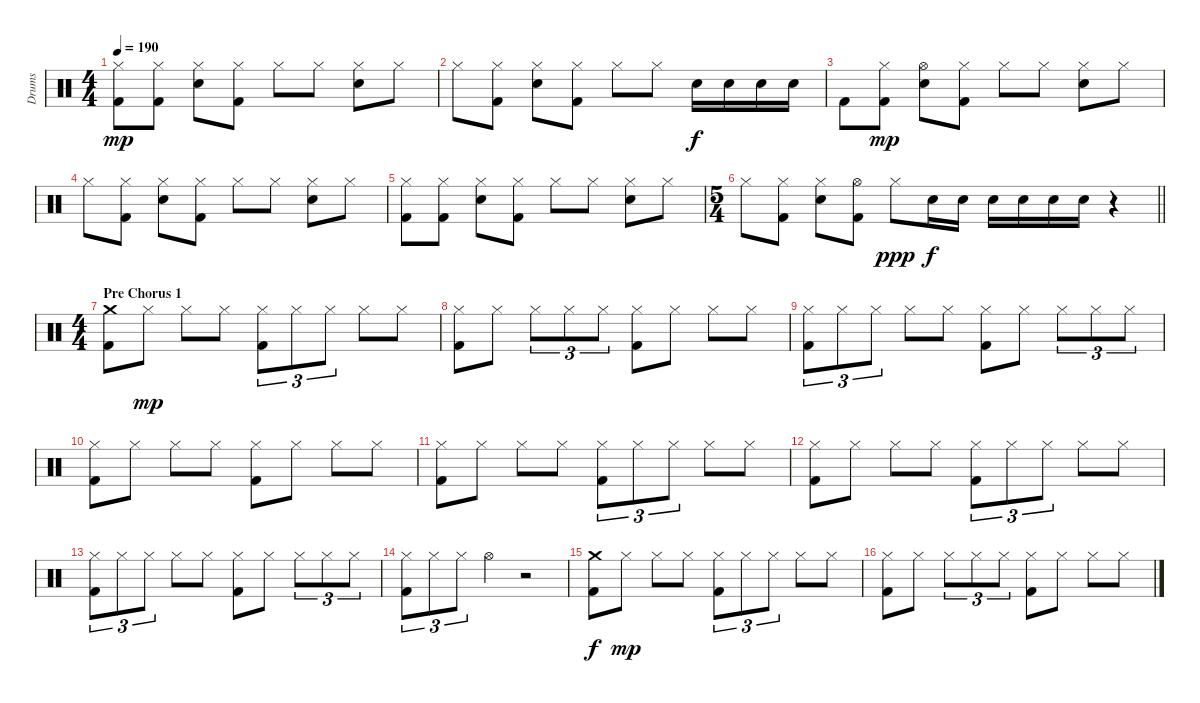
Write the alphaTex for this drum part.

\track ("Drums" "Drums") {instrument percussion}
\staff {score}
\articulation defaults
\ts (4 4)
\tempo 190
\clef neutral
\ks c
("Hi-Hat (closed)" "Kick (hit) 2").8{dy mp} ("Hi-Hat (closed)" "Kick (hit) 2").8 ("Hi-Hat (closed)" "Snare (hit) 2").8 ("Hi-Hat (closed)" "Kick (hit) 2").8 "Hi-Hat (closed)".8 "Hi-Hat (closed)".8 ("Hi-Hat (closed)" "Snare (hit) 2").8 "Hi-Hat (closed)".8 |
"Hi-Hat (closed)".8 ("Hi-Hat (closed)" "Kick (hit) 2").8 ("Hi-Hat (closed)" "Snare (hit) 2").8 ("Hi-Hat (closed)" "Kick (hit) 2").8 "Hi-Hat (closed)".8 "Hi-Hat (closed)".8 "Snare (hit) 2".16{dy f} "Snare (hit) 2".16 "Snare (hit) 2".16 "Snare (hit) 2".16 |
"Kick (hit) 2".8 ("Hi-Hat (closed)" "Kick (hit) 2").8{dy mp} ("Hi-Hat (open)" "Snare (hit) 2").8 ("Hi-Hat (closed)" "Kick (hit) 2").8 "Hi-Hat (closed)".8 "Hi-Hat (closed)".8 ("Hi-Hat (closed)" "Snare (hit) 2").8 "Hi-Hat (closed)".8 |
"Hi-Hat (closed)".8 ("Hi-Hat (closed)" "Kick (hit) 2").8 ("Hi-Hat (closed)" "Snare (hit) 2").8 ("Hi-Hat (closed)" "Kick (hit) 2").8 "Hi-Hat (closed)".8 "Hi-Hat (closed)".8 ("Hi-Hat (closed)" "Snare (hit) 2").8 "Hi-Hat (closed)".8 |
("Hi-Hat (closed)" "Kick (hit) 2").8 ("Hi-Hat (closed)" "Kick (hit) 2").8 ("Hi-Hat (closed)" "Snare (hit) 2").8 ("Hi-Hat (closed)" "Kick (hit) 2").8 "Hi-Hat (closed)".8 "Hi-Hat (closed)".8 ("Hi-Hat (closed)" "Snare (hit) 2").8 "Hi-Hat (closed)".8 |
\ts (5 4)
\barLineRight lightlight "Hi-Hat (closed)".8
("Hi-Hat (closed)" "Kick (hit) 2").8 ("Hi-Hat (closed)" "Snare (hit) 2").8 ("Hi-Hat (open)" "Kick (hit) 2").8 "Hi-Hat (closed)".8{dy ppp} "Snare (hit) 2".16{dy f} "Snare (hit) 2".16 "Snare (hit) 2".16 "Snare (hit) 2".16 "Snare (hit) 2".16 "Snare (hit) 2".16 r.4 |
\ts (4 4)
\section ("" "Pre Chorus 1")
("Crash medium (hit)" "Kick (hit) 2").8 "Hi-Hat (closed)".8{dy mp} "Hi-Hat (closed)".8 "Hi-Hat (closed)".8 ("Hi-Hat (closed)" "Kick (hit) 2").8{tu (3 2)} "Hi-Hat (closed)".8{tu (3 2)} "Hi-Hat (closed)".8{tu (3 2)} "Hi-Hat (closed)".8 "Hi-Hat (closed)".8 |
("Hi-Hat (closed)" "Kick (hit) 2").8 "Hi-Hat (closed)".8 "Hi-Hat (closed)".8{tu (3 2)} "Hi-Hat (closed)".8{tu (3 2)} "Hi-Hat (closed)".8{tu (3 2)} ("Hi-Hat (closed)" "Kick (hit) 2").8 "Hi-Hat (closed)".8 "Hi-Hat (closed)".8 "Hi-Hat (closed)".8 |
("Hi-Hat (closed)" "Kick (hit) 2").8{tu (3 2)} "Hi-Hat (closed)".8{tu (3 2)} "Hi-Hat (closed)".8{tu (3 2)} "Hi-Hat (closed)".8 "Hi-Hat (closed)".8 ("Hi-Hat (closed)" "Kick (hit) 2").8 "Hi-Hat (closed)".8 "Hi-Hat (closed)".8{tu (3 2)} "Hi-Hat (closed)".8{tu (3 2)} "Hi-Hat (closed)".8{tu (3 2)} |
("Hi-Hat (closed)" "Kick (hit) 2").8 "Hi-Hat (closed)".8 "Hi-Hat (closed)".8 "Hi-Hat (closed)".8 ("Hi-Hat (closed)" "Kick (hit) 2").8 "Hi-Hat (closed)".8 "Hi-Hat (closed)".8 "Hi-Hat (closed)".8 |
("Hi-Hat (closed)" "Kick (hit) 2").8 "Hi-Hat (closed)".8 "Hi-Hat (closed)".8 "Hi-Hat (closed)".8 ("Hi-Hat (closed)" "Kick (hit) 2").8{tu (3 2)} "Hi-Hat (closed)".8{tu (3 2)} "Hi-Hat (closed)".8{tu (3 2)} "Hi-Hat (closed)".8 "Hi-Hat (closed)".8 |
("Hi-Hat (closed)" "Kick (hit) 2").8 "Hi-Hat (closed)".8 "Hi-Hat (closed)".8 "Hi-Hat (closed)".8 ("Hi-Hat (closed)" "Kick (hit) 2").8{tu (3 2)} "Hi-Hat (closed)".8{tu (3 2)} "Hi-Hat (closed)".8{tu (3 2)} "Hi-Hat (closed)".8 "Hi-Hat (closed)".8 |
("Hi-Hat (closed)" "Kick (hit) 2").8{tu (3 2)} "Hi-Hat (closed)".8{tu (3 2)} "Hi-Hat (closed)".8{tu (3 2)} "Hi-Hat (closed)".8 "Hi-Hat (closed)".8 ("Hi-Hat (closed)" "Kick (hit) 2").8 "Hi-Hat (closed)".8 "Hi-Hat (closed)".8{tu (3 2)} "Hi-Hat (closed)".8{tu (3 2)} "Hi-Hat (closed)".8{tu (3 2)} |
("Hi-Hat (closed)" "Kick (hit) 2").8{tu (3 2)} "Hi-Hat (closed)".8{tu (3 2)} "Hi-Hat (closed)".8{tu (3 2)} "Hi-Hat (open)".4 r.2 |
("Crash medium (hit)" "Kick (hit) 2").8{dy f} "Hi-Hat (closed)".8{dy mp} "Hi-Hat (closed)".8 "Hi-Hat (closed)".8 ("Hi-Hat (closed)" "Kick (hit) 2").8{tu (3 2)} "Hi-Hat (closed)".8{tu (3 2)} "Hi-Hat (closed)".8{tu (3 2)} "Hi-Hat (closed)".8 "Hi-Hat (closed)".8 |
("Hi-Hat (closed)" "Kick (hit) 2").8 "Hi-Hat (closed)".8 "Hi-Hat (closed)".8{tu (3 2)} "Hi-Hat (closed)".8{tu (3 2)} "Hi-Hat (closed)".8{tu (3 2)} ("Hi-Hat (closed)" "Kick (hit) 2").8 "Hi-Hat (closed)".8 "Hi-Hat (closed)".8 "Hi-Hat (closed)".8
